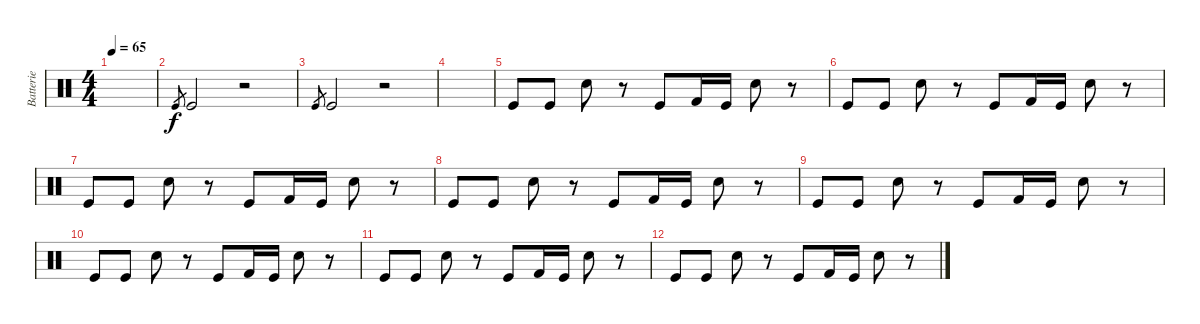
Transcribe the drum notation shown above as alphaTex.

\track ("Batterie" "Batterie") {instrument percussion}
\staff {score}
\articulation defaults
\ts (4 4)
\tempo 65
\clef neutral
\ks c
|
"Kick (hit)".8{gr} "Kick (hit)".2 r.2 |
"Kick (hit)".8{gr} "Kick (hit)".2 r.2 |
|
"Kick (hit)".8 "Kick (hit)".8 "Electric Snare (hit)".8 r.8 "Kick (hit)".8 "Kick (hit) 2".16 "Kick (hit)".16 "Electric Snare (hit)".8 r.8 |
"Kick (hit)".8 "Kick (hit)".8 "Electric Snare (hit)".8 r.8 "Kick (hit)".8 "Kick (hit) 2".16 "Kick (hit)".16 "Electric Snare (hit)".8 r.8 |
"Kick (hit)".8 "Kick (hit)".8 "Electric Snare (hit)".8 r.8 "Kick (hit)".8 "Kick (hit) 2".16 "Kick (hit)".16 "Electric Snare (hit)".8 r.8 |
"Kick (hit)".8 "Kick (hit)".8 "Electric Snare (hit)".8 r.8 "Kick (hit)".8 "Kick (hit) 2".16 "Kick (hit)".16 "Electric Snare (hit)".8 r.8 |
"Kick (hit)".8{volume 0} "Kick (hit)".8 "Electric Snare (hit)".8 r.8 "Kick (hit)".8 "Kick (hit) 2".16 "Kick (hit)".16 "Electric Snare (hit)".8 r.8 |
"Kick (hit)".8 "Kick (hit)".8 "Electric Snare (hit)".8 r.8 "Kick (hit)".8 "Kick (hit) 2".16 "Kick (hit)".16 "Electric Snare (hit)".8 r.8 |
"Kick (hit)".8 "Kick (hit)".8 "Electric Snare (hit)".8 r.8 "Kick (hit)".8 "Kick (hit) 2".16 "Kick (hit)".16 "Electric Snare (hit)".8 r.8 |
"Kick (hit)".8 "Kick (hit)".8 "Electric Snare (hit)".8 r.8 "Kick (hit)".8 "Kick (hit) 2".16 "Kick (hit)".16 "Electric Snare (hit)".8 r.8
